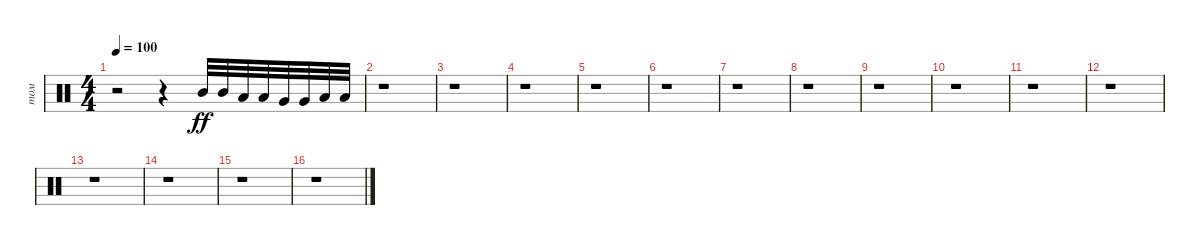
\track ("том" "том") {instrument percussion}
\staff {score}
\articulation defaults
\ts (4 4)
\tempo 100
\clef neutral
\ks c
r.2{dy ff} r.4 "Mid Tom (hit)".32 "Mid Tom (hit)".32 "Low Tom (hit)".32 "Low Tom (hit)".32 "Very Low Tom (hit)".32 "Very Low Tom (hit)".32 "Low Floor Tom (hit)".32 "Low Floor Tom (hit)".32 |
r.1 |
r.1 |
r.1 |
r.1 |
r.1 |
r.1 |
r.1 |
r.1 |
r.1 |
r.1 |
r.1 |
r.1 |
r.1 |
r.1 |
r.1
